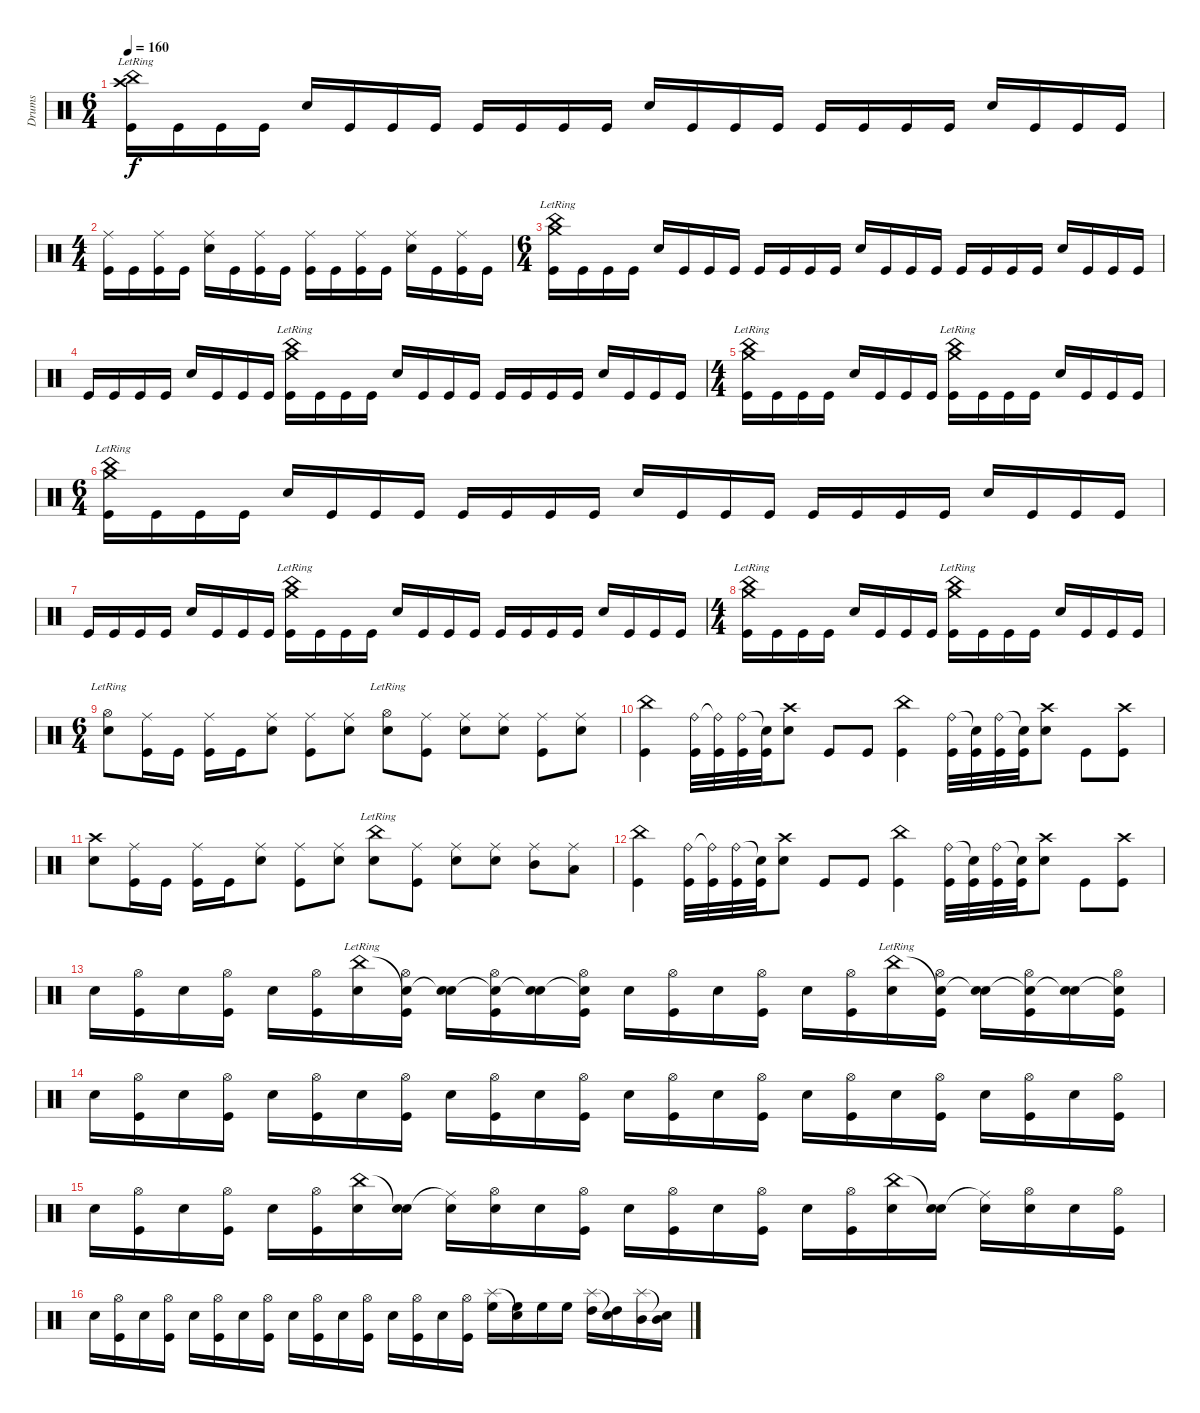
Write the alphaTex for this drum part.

\track ("Drums" "Drums") {instrument percussion}
\staff {score}
\articulation defaults
\ts (6 4)
\tempo 160
\clef neutral
\ks c
("China (hit)"{lr} "Crash high (hit)"{lr} "Kick (hit)").16{dy f} "Kick (hit)".16 "Kick (hit)".16 "Kick (hit)".16 "Snare (hit) 2".16 "Kick (hit)".16 "Kick (hit)".16 "Kick (hit)".16 "Kick (hit)".16 "Kick (hit)".16 "Kick (hit)".16 "Kick (hit)".16 "Snare (hit) 2".16 "Kick (hit)".16 "Kick (hit)".16 "Kick (hit)".16 "Kick (hit)".16 "Kick (hit)".16 "Kick (hit)".16 "Kick (hit)".16 "Snare (hit) 2".16 "Kick (hit)".16 "Kick (hit)".16 "Kick (hit)".16 |
\ts (4 4)
("Ride (middle)" "Kick (hit)").16 "Kick (hit)".16 ("Ride (middle)" "Kick (hit)").16 "Kick (hit)".16 ("Ride (middle)" "Snare (hit) 2").16 "Kick (hit)".16 ("Ride (middle)" "Kick (hit)").16 "Kick (hit)".16 ("Ride (middle)" "Kick (hit)").16 "Kick (hit)".16 ("Ride (middle)" "Kick (hit)").16 "Kick (hit)".16 ("Ride (middle)" "Snare (hit) 2").16 "Kick (hit)".16 ("Ride (middle)" "Kick (hit)").16 "Kick (hit)".16 |
\ts (6 4)
("Crash medium (hit)"{lr} "China (hit)"{lr} "Kick (hit)").16 "Kick (hit)".16 "Kick (hit)".16 "Kick (hit)".16 "Snare (hit) 2".16 "Kick (hit)".16 "Kick (hit)".16 "Kick (hit)".16 "Kick (hit)".16 "Kick (hit)".16 "Kick (hit)".16 "Kick (hit)".16 "Snare (hit) 2".16 "Kick (hit)".16 "Kick (hit)".16 "Kick (hit)".16 "Kick (hit)".16 "Kick (hit)".16 "Kick (hit)".16 "Kick (hit)".16 "Snare (hit) 2".16 "Kick (hit)".16 "Kick (hit)".16 "Kick (hit)".16 |
"Kick (hit)".16 "Kick (hit)".16 "Kick (hit)".16 "Kick (hit)".16 "Snare (hit) 2".16 "Kick (hit)".16 "Kick (hit)".16 "Kick (hit)".16 ("China (hit)"{lr} "Crash medium (hit)"{lr} "Kick (hit)").16 "Kick (hit)".16 "Kick (hit)".16 "Kick (hit)".16 "Snare (hit) 2".16 "Kick (hit)".16 "Kick (hit)".16 "Kick (hit)".16 "Kick (hit)".16 "Kick (hit)".16 "Kick (hit)".16 "Kick (hit)".16 "Snare (hit) 2".16 "Kick (hit)".16 "Kick (hit)".16 "Kick (hit)".16 |
\ts (4 4)
("China (hit)"{lr} "Crash medium (hit)"{lr} "Kick (hit)").16 "Kick (hit)".16 "Kick (hit)".16 "Kick (hit)".16 "Snare (hit) 2".16 "Kick (hit)".16 "Kick (hit)".16 "Kick (hit)".16 ("China (hit)"{lr} "Crash medium (hit)"{lr} "Kick (hit)").16 "Kick (hit)".16 "Kick (hit)".16 "Kick (hit)".16 "Snare (hit) 2".16 "Kick (hit)".16 "Kick (hit)".16 "Kick (hit)".16 |
\ts (6 4)
("Crash medium (hit)"{lr} "China (hit)"{lr} "Kick (hit)").16 "Kick (hit)".16 "Kick (hit)".16 "Kick (hit)".16 "Snare (hit) 2".16 "Kick (hit)".16 "Kick (hit)".16 "Kick (hit)".16 "Kick (hit)".16 "Kick (hit)".16 "Kick (hit)".16 "Kick (hit)".16 "Snare (hit) 2".16 "Kick (hit)".16 "Kick (hit)".16 "Kick (hit)".16 "Kick (hit)".16 "Kick (hit)".16 "Kick (hit)".16 "Kick (hit)".16 "Snare (hit) 2".16 "Kick (hit)".16 "Kick (hit)".16 "Kick (hit)".16 |
"Kick (hit)".16 "Kick (hit)".16 "Kick (hit)".16 "Kick (hit)".16 "Snare (hit) 2".16 "Kick (hit)".16 "Kick (hit)".16 "Kick (hit)".16 ("China (hit)"{lr} "Crash medium (hit)"{lr} "Kick (hit)").16 "Kick (hit)".16 "Kick (hit)".16 "Kick (hit)".16 "Snare (hit) 2".16 "Kick (hit)".16 "Kick (hit)".16 "Kick (hit)".16 "Kick (hit)".16 "Kick (hit)".16 "Kick (hit)".16 "Kick (hit)".16 "Snare (hit) 2".16 "Kick (hit)".16 "Kick (hit)".16 "Kick (hit)".16 |
\ts (4 4)
("China (hit)"{lr} "Crash medium (hit)"{lr} "Kick (hit)").16 "Kick (hit)".16 "Kick (hit)".16 "Kick (hit)".16 "Snare (hit) 2".16 "Kick (hit)".16 "Kick (hit)".16 "Kick (hit)".16 ("China (hit)"{lr} "Crash medium (hit)"{lr} "Kick (hit)").16 "Kick (hit)".16 "Kick (hit)".16 "Kick (hit)".16 "Snare (hit) 2".16 "Kick (hit)".16 "Kick (hit)".16 "Kick (hit)".16 |
\ts (6 4)
("Hi-Hat (open)"{lr} "Electric Snare (hit)").8 ("Ride (middle)" "Kick (hit)").16 "Kick (hit)".16 ("Ride (middle)" "Kick (hit)").16 "Kick (hit)".16 ("Ride (middle)" "Electric Snare (hit)").8 ("Ride (middle)" "Kick (hit)").8 ("Ride (middle)" "Electric Snare (hit)").8 ("Hi-Hat (open)"{lr} "Electric Snare (hit)").8 ("Ride (middle)" "Kick (hit)").8 ("Ride (middle)" "Electric Snare (hit)").8 ("Ride (middle)" "Electric Snare (hit)").8 ("Ride (middle)" "Kick (hit)").8 ("Ride (middle)" "Electric Snare (hit)").8 |
("China (hit)" "Kick (hit)").4 ("Ride (bell)" "Kick (hit)").32 ("Ride (bell)"{t} "Kick (hit)").32 ("Ride (bell)" "Kick (hit)").32 ("Snare (hit)"{t} "Kick (hit)").32 ("Crash high (hit)" "Electric Snare (hit)").8 "Kick (hit)".8 "Kick (hit)".8 ("China (hit)" "Kick (hit)").4 ("Ride (bell)" "Kick (hit)").32 ("Snare (hit)"{t} "Kick (hit)").32 ("Ride (bell)" "Kick (hit)").32 ("Snare (hit)"{t} "Kick (hit)").32 ("Crash high (hit)" "Electric Snare (hit)").8 "Kick (hit)".8 ("Crash high (hit)" "Kick (hit)").8 |
("Crash high (hit)" "Electric Snare (hit)").8 ("Ride (middle)" "Kick (hit)").16 "Kick (hit)".16 ("Ride (middle)" "Kick (hit)").16 "Kick (hit)".16 ("Ride (middle)" "Electric Snare (hit)").8 ("Ride (middle)" "Kick (hit)").8 ("Ride (middle)" "Electric Snare (hit)").8 ("China (hit)"{lr} "Electric Snare (hit)").8 ("Ride (middle)" "Kick (hit)").8 ("Ride (middle)" "Electric Snare (hit)").8 ("Ride (middle)" "Electric Snare (hit)").8 ("Ride (middle)" "Mid Tom (hit)").8 ("Ride (middle)" "Low Tom (hit)").8 |
("China (hit)" "Kick (hit)").4 ("Ride (bell)" "Kick (hit)").32 ("Ride (bell)"{t} "Kick (hit)").32 ("Ride (bell)" "Kick (hit)").32 ("Snare (hit)"{t} "Kick (hit)").32 ("Crash high (hit)" "Electric Snare (hit)").8 "Kick (hit)".8 "Kick (hit)".8 ("China (hit)" "Kick (hit)").4 ("Ride (bell)" "Kick (hit)").32 ("Snare (hit)"{t} "Kick (hit)").32 ("Ride (bell)" "Kick (hit)").32 ("Snare (hit)"{t} "Kick (hit)").32 ("Crash high (hit)" "Electric Snare (hit)").8 "Kick (hit)".8 ("Crash high (hit)" "Kick (hit)").8 |
"Electric Snare (hit)".16 ("Hi-Hat (open)" "Kick (hit)").16 "Electric Snare (hit)".16 ("Hi-Hat (open)" "Kick (hit)").16 "Electric Snare (hit)".16 ("Hi-Hat (open)" "Kick (hit)").16 ("China (hit)"{lr} "Electric Snare (hit)").16 ("Snare (hit)"{t} "Hi-Hat (open)" "Kick (hit)").16 ("Snare (hit)"{t} "Electric Snare (hit)").16 ("Snare (hit)"{t} "Hi-Hat (open)" "Kick (hit)").16 ("Snare (hit)"{t} "Electric Snare (hit)").16 ("Snare (hit)"{t} "Hi-Hat (open)" "Kick (hit)").16 "Electric Snare (hit)".16 ("Hi-Hat (open)" "Kick (hit)").16 "Electric Snare (hit)".16 ("Hi-Hat (open)" "Kick (hit)").16 "Electric Snare (hit)".16 ("Hi-Hat (open)" "Kick (hit)").16 ("China (hit)"{lr} "Electric Snare (hit)").16 ("Snare (hit)"{t} "Hi-Hat (open)" "Kick (hit)").16 ("Snare (hit)"{t} "Electric Snare (hit)").16 ("Snare (hit)"{t} "Hi-Hat (open)" "Kick (hit)").16 ("Snare (hit)"{t} "Electric Snare (hit)").16 ("Snare (hit)"{t} "Hi-Hat (open)" "Kick (hit)").16 |
"Electric Snare (hit)".16 ("Hi-Hat (open)" "Kick (hit)").16 "Electric Snare (hit)".16 ("Hi-Hat (open)" "Kick (hit)").16 "Electric Snare (hit)".16 ("Hi-Hat (open)" "Kick (hit)").16 "Electric Snare (hit)".16 ("Hi-Hat (open)" "Kick (hit)").16 "Electric Snare (hit)".16 ("Hi-Hat (open)" "Kick (hit)").16 "Electric Snare (hit)".16 ("Hi-Hat (open)" "Kick (hit)").16 "Electric Snare (hit)".16 ("Hi-Hat (open)" "Kick (hit)").16 "Electric Snare (hit)".16 ("Hi-Hat (open)" "Kick (hit)").16 "Electric Snare (hit)".16 ("Hi-Hat (open)" "Kick (hit)").16 "Electric Snare (hit)".16 ("Hi-Hat (open)" "Kick (hit)").16 "Electric Snare (hit)".16 ("Hi-Hat (open)" "Kick (hit)").16 "Electric Snare (hit)".16 ("Hi-Hat (open)" "Kick (hit)").16 |
"Electric Snare (hit)".16 ("Hi-Hat (open)" "Kick (hit)").16 "Electric Snare (hit)".16 ("Hi-Hat (open)" "Kick (hit)").16 "Electric Snare (hit)".16 ("Hi-Hat (open)" "Kick (hit)").16 ("China (hit)" "Electric Snare (hit)").16 ("Snare (hit)"{t} "Electric Snare (hit)").16 ("Ride (middle)"{t} "Electric Snare (hit)").16 ("Hi-Hat (open)" "Electric Snare (hit)").16 "Electric Snare (hit)".16 ("Hi-Hat (open)" "Kick (hit)").16 "Electric Snare (hit)".16 ("Hi-Hat (open)" "Kick (hit)").16 "Electric Snare (hit)".16 ("Hi-Hat (open)" "Kick (hit)").16 "Electric Snare (hit)".16 ("Hi-Hat (open)" "Kick (hit)").16 ("China (hit)" "Electric Snare (hit)").16 ("Snare (hit)"{t} "Electric Snare (hit)").16 ("Ride (middle)"{t} "Electric Snare (hit)").16 ("Hi-Hat (open)" "Electric Snare (hit)").16 "Electric Snare (hit)".16 ("Hi-Hat (open)" "Kick (hit)").16 |
"Electric Snare (hit)".16 ("Hi-Hat (open)" "Kick (hit)").16 "Electric Snare (hit)".16 ("Hi-Hat (open)" "Kick (hit)").16 "Electric Snare (hit)".16 ("Hi-Hat (open)" "Kick (hit)").16 "Electric Snare (hit)".16 ("Hi-Hat (open)" "Kick (hit)").16 "Electric Snare (hit)".16 ("Hi-Hat (open)" "Kick (hit)").16 "Electric Snare (hit)".16 ("Hi-Hat (open)" "Kick (hit)").16 "Electric Snare (hit)".16 ("Hi-Hat (open)" "Kick (hit)").16 "Electric Snare (hit)".16 ("Hi-Hat (open)" "Kick (hit)").16 ("Splash (hit)" "High Floor Tom (hit)").16 ("Snare (hit)"{t} "High Floor Tom (hit)").16 "High Floor Tom (hit)".16 "High Floor Tom (hit)".16 ("Splash (hit)" "High Tom (hit)").16 ("Snare (hit)"{t} "High Tom (hit)").16 ("Splash (hit)" "Mid Tom (hit)").16 ("Snare (hit)"{t} "Mid Tom (hit)").16
